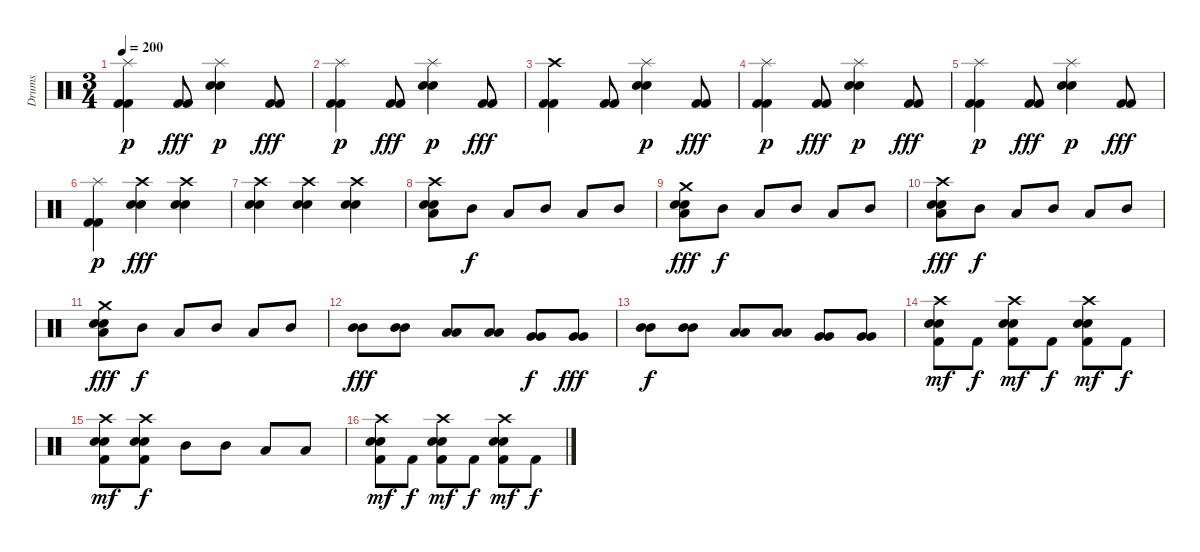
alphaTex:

\track ("Drums" "Drums") {instrument percussion bank 41}
\staff
\articulation defaults
\ts (3 4)
\tempo 200
\clef neutral
\ks c
("Kick (hit) 2" "Kick (hit) 2" "Splash (hit)").4{dy p} ("Kick (hit) 2" "Kick (hit) 2").8{dy fff} ("Snare (hit) 2" "Electric Snare (hit)" "Splash (hit)").4{dy p} ("Kick (hit) 2" "Kick (hit) 2").8{dy fff} |
("Kick (hit) 2" "Kick (hit) 2" "Splash (hit)").4{dy p} ("Kick (hit) 2" "Kick (hit) 2").8{dy fff} ("Snare (hit) 2" "Electric Snare (hit)" "Splash (hit)").4{dy p} ("Kick (hit) 2" "Kick (hit) 2").8{dy fff} |
("Kick (hit) 2" "Kick (hit) 2" "Crash high (hit)").4 ("Kick (hit) 2" "Kick (hit) 2").8 ("Snare (hit) 2" "Electric Snare (hit)" "Splash (hit)").4{dy p} ("Kick (hit) 2" "Kick (hit) 2").8{dy fff} |
("Kick (hit) 2" "Kick (hit) 2" "Splash (hit)").4{dy p} ("Kick (hit) 2" "Kick (hit) 2").8{dy fff} ("Snare (hit) 2" "Electric Snare (hit)" "Splash (hit)").4{dy p} ("Kick (hit) 2" "Kick (hit) 2").8{dy fff} |
("Kick (hit) 2" "Kick (hit) 2" "Splash (hit)").4{dy p} ("Kick (hit) 2" "Kick (hit) 2").8{dy fff} ("Snare (hit) 2" "Electric Snare (hit)" "Splash (hit)").4{dy p} ("Kick (hit) 2" "Kick (hit) 2").8{dy fff} |
("Kick (hit) 2" "Kick (hit) 2" "Splash (hit)").4{dy p} ("Crash high (hit)" "Electric Snare (hit)" "Snare (hit) 2").4{dy fff} ("Crash high (hit)" "Electric Snare (hit)" "Snare (hit) 2").4 |
("Crash high (hit)" "Electric Snare (hit)" "Snare (hit) 2").4 ("Crash high (hit)" "Electric Snare (hit)" "Snare (hit) 2").4 ("Crash high (hit)" "Electric Snare (hit)" "Snare (hit) 2").4 |
("Snare (hit) 2" "Electric Snare (hit)" "Low Floor Tom (hit)" "Crash high (hit)").8 "Mid Tom (hit)".8{dy f} "Low Tom (hit)".8 "Mid Tom (hit)".8 "Low Tom (hit)".8 "Mid Tom (hit)".8 |
("Snare (hit) 2" "Electric Snare (hit)" "Low Floor Tom (hit)" "Crash medium (hit)").8{dy fff} "Mid Tom (hit)".8{dy f} "Low Tom (hit)".8 "Mid Tom (hit)".8 "Low Tom (hit)".8 "Mid Tom (hit)".8 |
("Snare (hit) 2" "Electric Snare (hit)" "Low Floor Tom (hit)" "Crash high (hit)").8{dy fff} "Mid Tom (hit)".8{dy f} "Low Tom (hit)".8 "Mid Tom (hit)".8 "Low Tom (hit)".8 "Mid Tom (hit)".8 |
("Snare (hit) 2" "Electric Snare (hit)" "Low Floor Tom (hit)" "Crash medium (hit)").8{dy fff} "Mid Tom (hit)".8{dy f} "Low Tom (hit)".8 "Mid Tom (hit)".8 "Low Tom (hit)".8 "Mid Tom (hit)".8 |
("Mid Tom (hit)" "Mid Tom (hit)").8{dy fff} ("Mid Tom (hit)" "Mid Tom (hit)").8 ("Low Tom (hit)" "Low Tom (hit)").8 ("Low Tom (hit)" "Low Tom (hit)").8 ("Very Low Tom (hit)" "Very Low Tom (hit)").8{dy f} ("Very Low Tom (hit)" "Very Low Tom (hit)").8{dy fff} |
("Mid Tom (hit)" "Mid Tom (hit)").8{dy f} ("Mid Tom (hit)" "Mid Tom (hit)").8 ("Low Tom (hit)" "Low Tom (hit)").8 ("Low Tom (hit)" "Low Tom (hit)").8 ("Very Low Tom (hit)" "Very Low Tom (hit)").8 ("Very Low Tom (hit)" "Very Low Tom (hit)").8 |
("Kick (hit) 2" "Snare (hit) 2" "Electric Snare (hit)" "Crash high (hit)").8{dy mf} "Kick (hit) 2".8{dy f} ("Kick (hit) 2" "Snare (hit) 2" "Electric Snare (hit)" "Crash high (hit)").8{dy mf} "Kick (hit) 2".8{dy f} ("Kick (hit) 2" "Snare (hit) 2" "Snare (hit) 2" "Crash high (hit)").8{dy mf} "Kick (hit) 2".8{dy f} |
("Kick (hit) 2" "Snare (hit) 2" "Electric Snare (hit)" "Crash high (hit)").8{dy mf} ("Kick (hit) 2" "Snare (hit) 2" "Electric Snare (hit)" "Crash high (hit)").8{dy f} "Mid Tom (hit)".8 "Mid Tom (hit)".8 "Low Tom (hit)".8 "Low Tom (hit)".8 |
("Kick (hit) 2" "Snare (hit) 2" "Electric Snare (hit)" "Crash high (hit)").8{dy mf} "Kick (hit) 2".8{dy f} ("Kick (hit) 2" "Snare (hit) 2" "Electric Snare (hit)" "Crash high (hit)").8{dy mf} "Kick (hit) 2".8{dy f} ("Kick (hit) 2" "Snare (hit) 2" "Snare (hit) 2" "Crash high (hit)").8{dy mf} "Kick (hit) 2".8{dy f}
